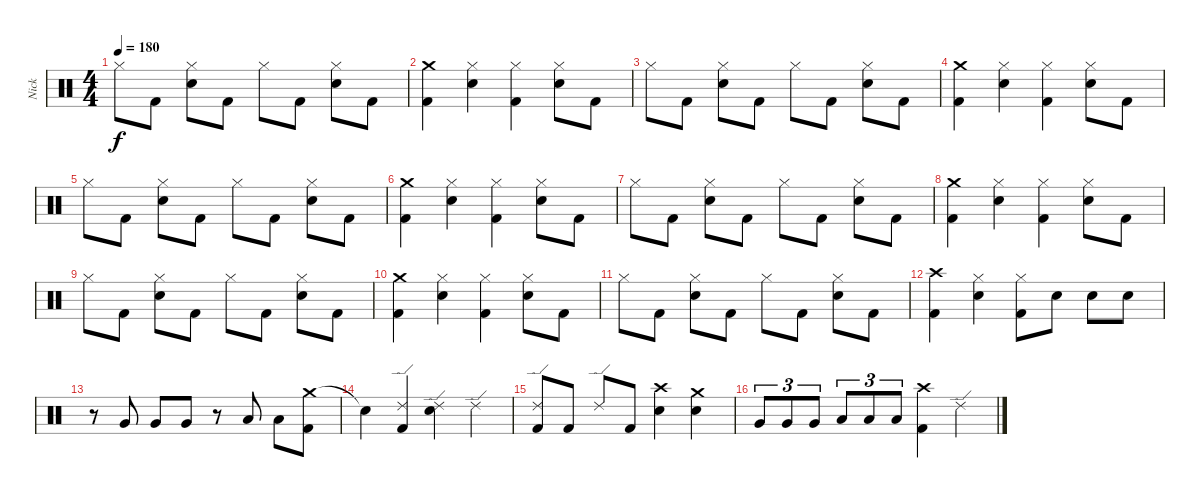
\track ("Nick" "Nick") {instrument percussion}
\staff {score}
\articulation defaults
\ts (4 4)
\tempo 180
\clef neutral
\ks c "Hi-Hat (closed)".8{dy f} "Kick (hit) 2".8
("Hi-Hat (closed)" "Electric Snare (hit)").8 "Kick (hit) 2".8 "Hi-Hat (closed)".8 "Kick (hit) 2".8 ("Hi-Hat (closed)" "Electric Snare (hit)").8 "Kick (hit) 2".8 |
("Crash medium (hit)" "Kick (hit) 2").4 ("Hi-Hat (closed)" "Electric Snare (hit)").4 ("Hi-Hat (closed)" "Kick (hit) 2").4 ("Hi-Hat (closed)" "Electric Snare (hit)").8 "Kick (hit) 2".8 |
"Hi-Hat (closed)".8 "Kick (hit) 2".8 ("Hi-Hat (closed)" "Electric Snare (hit)").8 "Kick (hit) 2".8 "Hi-Hat (closed)".8 "Kick (hit) 2".8 ("Hi-Hat (closed)" "Electric Snare (hit)").8 "Kick (hit) 2".8 |
("Crash medium (hit)" "Kick (hit) 2").4 ("Hi-Hat (closed)" "Electric Snare (hit)").4 ("Hi-Hat (closed)" "Kick (hit) 2").4 ("Hi-Hat (closed)" "Electric Snare (hit)").8 "Kick (hit) 2".8 |
"Hi-Hat (closed)".8 "Kick (hit) 2".8 ("Hi-Hat (closed)" "Electric Snare (hit)").8 "Kick (hit) 2".8 "Hi-Hat (closed)".8 "Kick (hit) 2".8 ("Hi-Hat (closed)" "Electric Snare (hit)").8 "Kick (hit) 2".8 |
("Crash medium (hit)" "Kick (hit) 2").4 ("Hi-Hat (closed)" "Electric Snare (hit)").4 ("Hi-Hat (closed)" "Kick (hit) 2").4 ("Hi-Hat (closed)" "Electric Snare (hit)").8 "Kick (hit) 2".8 |
"Hi-Hat (closed)".8 "Kick (hit) 2".8 ("Hi-Hat (closed)" "Electric Snare (hit)").8 "Kick (hit) 2".8 "Hi-Hat (closed)".8 "Kick (hit) 2".8 ("Hi-Hat (closed)" "Electric Snare (hit)").8 "Kick (hit) 2".8 |
("Crash medium (hit)" "Kick (hit) 2").4 ("Hi-Hat (closed)" "Electric Snare (hit)").4 ("Hi-Hat (closed)" "Kick (hit) 2").4 ("Hi-Hat (closed)" "Electric Snare (hit)").8 "Kick (hit) 2".8 |
"Hi-Hat (closed)".8 "Kick (hit) 2".8 ("Hi-Hat (closed)" "Electric Snare (hit)").8 "Kick (hit) 2".8 "Hi-Hat (closed)".8 "Kick (hit) 2".8 ("Hi-Hat (closed)" "Electric Snare (hit)").8 "Kick (hit) 2".8 |
("Crash medium (hit)" "Kick (hit) 2").4 ("Hi-Hat (closed)" "Electric Snare (hit)").4 ("Hi-Hat (closed)" "Kick (hit) 2").4 ("Hi-Hat (closed)" "Electric Snare (hit)").8 "Kick (hit) 2".8 |
"Hi-Hat (closed)".8 "Kick (hit) 2".8 ("Hi-Hat (closed)" "Electric Snare (hit)").8 "Kick (hit) 2".8 "Hi-Hat (closed)".8 "Kick (hit) 2".8 ("Hi-Hat (closed)" "Electric Snare (hit)").8 "Kick (hit) 2".8 |
("Crash high (hit)" "Kick (hit) 2").4 ("Hi-Hat (closed)" "Electric Snare (hit)").4 ("Hi-Hat (closed)" "Kick (hit) 2").8 "Electric Snare (hit)".8 "Electric Snare (hit)".8 "Electric Snare (hit)".8 |
r.8 "Very Low Tom (hit)".8 "Very Low Tom (hit)".8 "Very Low Tom (hit)".8 r.8 "Low Floor Tom (hit)".8 "Low Floor Tom (hit)".8 ("Crash medium (hit)" "Kick (hit) 2").8 |
"Snare (hit)"{t}.4 ("Ride (edge) 2" "Kick (hit) 2").4 ("Ride (edge) 2" "Electric Snare (hit)").4 "Ride (edge) 2".4 |
("Ride (edge) 2" "Kick (hit) 2").8 "Kick (hit) 2".8 "Ride (edge) 2".8 "Kick (hit) 2".8 ("Crash high (hit)" "Electric Snare (hit)").4 ("Crash medium (hit)" "Electric Snare (hit)").4 |
"Very Low Tom (hit)".8{tu (3 2)} "Very Low Tom (hit)".8{tu (3 2)} "Very Low Tom (hit)".8{tu (3 2)} "Low Floor Tom (hit)".8{tu (3 2)} "Low Floor Tom (hit)".8{tu (3 2)} "Low Floor Tom (hit)".8{tu (3 2)} ("Crash high (hit)" "Kick (hit) 2").4 "Ride (edge) 2".4
